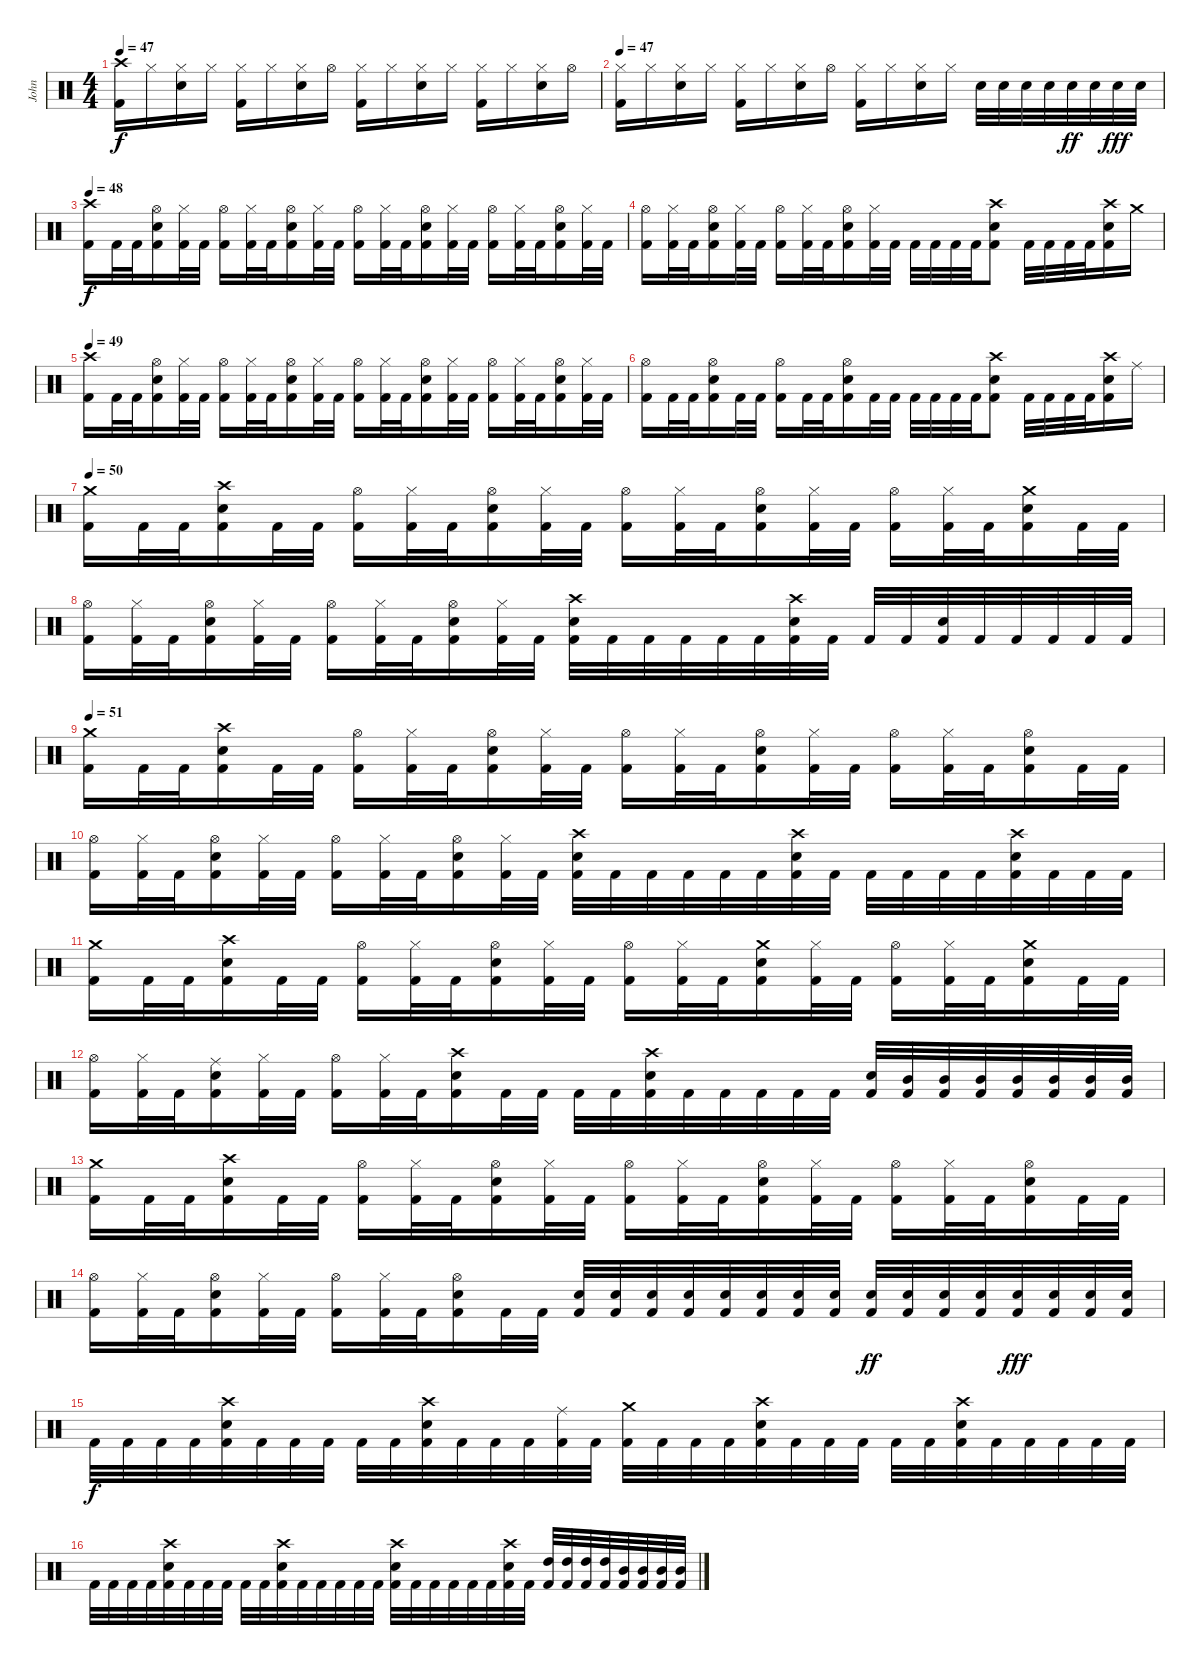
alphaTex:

\track ("John" "John") {instrument percussion}
\staff {score}
\articulation defaults
\ts (4 4)
\tempo 47
\clef neutral
\ks c
("Crash high (hit)" "Kick (hit) 2").16{dy f} "Hi-Hat (closed)".16 ("Hi-Hat (closed)" "Snare (hit) 2").16 "Hi-Hat (closed)".16 ("Hi-Hat (closed)" "Kick (hit) 2").16 "Hi-Hat (closed)".16 ("Hi-Hat (closed)" "Snare (hit) 2").16 "Hi-Hat (open)".16 ("Hi-Hat (closed)" "Kick (hit) 2").16 "Hi-Hat (closed)".16 ("Hi-Hat (closed)" "Snare (hit) 2").16 "Hi-Hat (closed)".16 ("Hi-Hat (closed)" "Kick (hit) 2").16 "Hi-Hat (closed)".16 ("Hi-Hat (closed)" "Snare (hit) 2").16 "Hi-Hat (open)".16 |
\tempo 47
("Hi-Hat (closed)" "Kick (hit) 2").16 "Hi-Hat (closed)".16 ("Hi-Hat (closed)" "Snare (hit) 2").16 "Hi-Hat (closed)".16 ("Hi-Hat (closed)" "Kick (hit) 2").16 "Hi-Hat (closed)".16 ("Hi-Hat (closed)" "Snare (hit) 2").16 "Hi-Hat (open)".16 ("Hi-Hat (closed)" "Kick (hit) 2").16 "Hi-Hat (closed)".16 ("Hi-Hat (closed)" "Snare (hit) 2").16 "Hi-Hat (closed)".16 "Snare (hit) 2".32 "Snare (hit) 2".32 "Snare (hit) 2".32 "Snare (hit) 2".32 "Snare (hit) 2".32{dy ff} "Snare (hit) 2".32 "Snare (hit) 2".32{dy fff} "Snare (hit) 2".32 |
\tempo 45
\tempo 48
("Crash high (hit)" "Kick (hit) 2").16{dy f} "Kick (hit) 2".32 "Kick (hit) 2".32 ("Hi-Hat (open)" "Snare (hit) 2" "Kick (hit) 2").16 ("Hi-Hat (closed)" "Kick (hit) 2").32 "Kick (hit) 2".32 ("Hi-Hat (open)" "Kick (hit) 2").16 ("Hi-Hat (closed)" "Kick (hit) 2").32 "Kick (hit) 2".32 ("Hi-Hat (open)" "Snare (hit) 2" "Kick (hit) 2").16 ("Hi-Hat (closed)" "Kick (hit) 2").32 "Kick (hit) 2".32 ("Hi-Hat (open)" "Kick (hit) 2").16 ("Hi-Hat (closed)" "Kick (hit) 2").32 "Kick (hit) 2".32 ("Hi-Hat (open)" "Snare (hit) 2" "Kick (hit) 2").16 ("Hi-Hat (closed)" "Kick (hit) 2").32 "Kick (hit) 2".32 ("Hi-Hat (open)" "Kick (hit) 2").16 ("Hi-Hat (closed)" "Kick (hit) 2").32 "Kick (hit) 2".32 ("Hi-Hat (open)" "Snare (hit) 2" "Kick (hit) 2").16 ("Hi-Hat (closed)" "Kick (hit) 2").32 "Kick (hit) 2".32 |
("Hi-Hat (open)" "Kick (hit) 2").16 ("Hi-Hat (closed)" "Kick (hit) 2").32 "Kick (hit) 2".32 ("Hi-Hat (open)" "Snare (hit) 2" "Kick (hit) 2").16 ("Hi-Hat (closed)" "Kick (hit) 2").32 "Kick (hit) 2".32 ("Hi-Hat (open)" "Kick (hit) 2").16 ("Hi-Hat (closed)" "Kick (hit) 2").32 "Kick (hit) 2".32 ("Hi-Hat (open)" "Snare (hit) 2" "Kick (hit) 2").16 ("Hi-Hat (closed)" "Kick (hit) 2").32 "Kick (hit) 2".32 "Kick (hit) 2".32 "Kick (hit) 2".32 "Kick (hit) 2".32 "Kick (hit) 2".32 ("Crash high (hit)" "Snare (hit) 2" "Kick (hit) 2").8 "Kick (hit) 2".32 "Kick (hit) 2".32 "Kick (hit) 2".32 "Kick (hit) 2".32 ("Crash high (hit)" "Snare (hit) 2" "Kick (hit) 2").16 "Crash medium (hit)".16 |
\tempo 49
("Crash high (hit)" "Kick (hit) 2").16 "Kick (hit) 2".32 "Kick (hit) 2".32 ("Hi-Hat (open)" "Snare (hit) 2" "Kick (hit) 2").16 ("Hi-Hat (closed)" "Kick (hit) 2").32 "Kick (hit) 2".32 ("Hi-Hat (open)" "Kick (hit) 2").16 ("Hi-Hat (closed)" "Kick (hit) 2").32 "Kick (hit) 2".32 ("Hi-Hat (open)" "Snare (hit) 2" "Kick (hit) 2").16 ("Hi-Hat (closed)" "Kick (hit) 2").32 "Kick (hit) 2".32 ("Hi-Hat (open)" "Kick (hit) 2").16 ("Hi-Hat (closed)" "Kick (hit) 2").32 "Kick (hit) 2".32 ("Hi-Hat (open)" "Snare (hit) 2" "Kick (hit) 2").16 ("Hi-Hat (closed)" "Kick (hit) 2").32 "Kick (hit) 2".32 ("Hi-Hat (open)" "Kick (hit) 2").16 ("Hi-Hat (closed)" "Kick (hit) 2").32 "Kick (hit) 2".32 ("Hi-Hat (open)" "Snare (hit) 2" "Kick (hit) 2").16 ("Hi-Hat (closed)" "Kick (hit) 2").32 "Kick (hit) 2".32 |
("Hi-Hat (open)" "Kick (hit) 2").16 "Kick (hit) 2".32 "Kick (hit) 2".32 ("Hi-Hat (open)" "Snare (hit) 2" "Kick (hit) 2").16 "Kick (hit) 2".32 "Kick (hit) 2".32 ("Hi-Hat (open)" "Kick (hit) 2").16 "Kick (hit) 2".32 "Kick (hit) 2".32 ("Hi-Hat (open)" "Snare (hit) 2" "Kick (hit) 2").16 "Kick (hit) 2".32 "Kick (hit) 2".32 "Kick (hit) 2".32 "Kick (hit) 2".32 "Kick (hit) 2".32 "Kick (hit) 2".32 ("Crash high (hit)" "Snare (hit) 2" "Kick (hit) 2").8 "Kick (hit) 2".32 "Kick (hit) 2".32 "Kick (hit) 2".32 "Kick (hit) 2".32 ("Crash high (hit)" "Snare (hit) 2" "Kick (hit) 2").16 "Ride (middle)".16 |
\tempo 50
("Crash medium (hit)" "Kick (hit) 2").16 "Kick (hit) 2".32 "Kick (hit) 2".32 ("Crash high (hit)" "Snare (hit) 2" "Kick (hit) 2").16 "Kick (hit) 2".32 "Kick (hit) 2".32 ("Hi-Hat (open)" "Kick (hit) 2").16 ("Hi-Hat (closed)" "Kick (hit) 2").32 "Kick (hit) 2".32 ("Hi-Hat (open)" "Snare (hit) 2" "Kick (hit) 2").16 ("Hi-Hat (closed)" "Kick (hit) 2").32 "Kick (hit) 2".32 ("Hi-Hat (open)" "Kick (hit) 2").16 ("Hi-Hat (closed)" "Kick (hit) 2").32 "Kick (hit) 2".32 ("Hi-Hat (open)" "Snare (hit) 2" "Kick (hit) 2").16 ("Hi-Hat (closed)" "Kick (hit) 2").32 "Kick (hit) 2".32 ("Hi-Hat (open)" "Kick (hit) 2").16 ("Hi-Hat (closed)" "Kick (hit) 2").32 "Kick (hit) 2".32 ("Crash medium (hit)" "Snare (hit) 2" "Kick (hit) 2").16 "Kick (hit) 2".32 "Kick (hit) 2".32 |
("Hi-Hat (open)" "Kick (hit) 2").16 ("Hi-Hat (closed)" "Kick (hit) 2").32 "Kick (hit) 2".32 ("Hi-Hat (open)" "Snare (hit) 2" "Kick (hit) 2").16 ("Hi-Hat (closed)" "Kick (hit) 2").32 "Kick (hit) 2".32 ("Hi-Hat (open)" "Kick (hit) 2").16 ("Hi-Hat (closed)" "Kick (hit) 2").32 "Kick (hit) 2".32 ("Hi-Hat (open)" "Snare (hit) 2" "Kick (hit) 2").16 ("Hi-Hat (closed)" "Kick (hit) 2").32 "Kick (hit) 2".32 ("Crash high (hit)" "Snare (hit) 2" "Kick (hit) 2").32 "Kick (hit) 2".32 "Kick (hit) 2".32 "Kick (hit) 2".32 "Kick (hit) 2".32 "Kick (hit) 2".32 ("Crash high (hit)" "Snare (hit) 2" "Kick (hit) 2").32 "Kick (hit) 2".32 "Kick (hit) 2".32 "Kick (hit) 2".32 ("Snare (hit) 2" "Kick (hit) 2").32 "Kick (hit) 2".32 "Kick (hit) 2".32 "Kick (hit) 2".32 "Kick (hit) 2".32 "Kick (hit) 2".32 |
\tempo 51
("Crash medium (hit)" "Kick (hit) 2").16 "Kick (hit) 2".32 "Kick (hit) 2".32 ("Crash high (hit)" "Snare (hit) 2" "Kick (hit) 2").16 "Kick (hit) 2".32 "Kick (hit) 2".32 ("Hi-Hat (open)" "Kick (hit) 2").16 ("Hi-Hat (closed)" "Kick (hit) 2").32 "Kick (hit) 2".32 ("Hi-Hat (open)" "Snare (hit) 2" "Kick (hit) 2").16 ("Hi-Hat (closed)" "Kick (hit) 2").32 "Kick (hit) 2".32 ("Hi-Hat (open)" "Kick (hit) 2").16 ("Hi-Hat (closed)" "Kick (hit) 2").32 "Kick (hit) 2".32 ("Hi-Hat (open)" "Snare (hit) 2" "Kick (hit) 2").16 ("Hi-Hat (closed)" "Kick (hit) 2").32 "Kick (hit) 2".32 ("Hi-Hat (open)" "Kick (hit) 2").16 ("Hi-Hat (closed)" "Kick (hit) 2").32 "Kick (hit) 2".32 ("Hi-Hat (open)" "Snare (hit) 2" "Kick (hit) 2").16 "Kick (hit) 2".32 "Kick (hit) 2".32 |
("Hi-Hat (open)" "Kick (hit) 2").16 ("Hi-Hat (closed)" "Kick (hit) 2").32 "Kick (hit) 2".32 ("Hi-Hat (open)" "Snare (hit) 2" "Kick (hit) 2").16 ("Hi-Hat (closed)" "Kick (hit) 2").32 "Kick (hit) 2".32 ("Hi-Hat (open)" "Kick (hit) 2").16 ("Hi-Hat (closed)" "Kick (hit) 2").32 "Kick (hit) 2".32 ("Hi-Hat (open)" "Snare (hit) 2" "Kick (hit) 2").16 ("Hi-Hat (closed)" "Kick (hit) 2").32 "Kick (hit) 2".32 ("Crash high (hit)" "Snare (hit) 2" "Kick (hit) 2").32 "Kick (hit) 2".32 "Kick (hit) 2".32 "Kick (hit) 2".32 "Kick (hit) 2".32 "Kick (hit) 2".32 ("Crash high (hit)" "Snare (hit) 2" "Kick (hit) 2").32 "Kick (hit) 2".32 "Kick (hit) 2".32 "Kick (hit) 2".32 "Kick (hit) 2".32 "Kick (hit) 2".32 ("Crash high (hit)" "Snare (hit) 2" "Kick (hit) 2").32 "Kick (hit) 2".32 "Kick (hit) 2".32 "Kick (hit) 2".32 |
("Crash medium (hit)" "Kick (hit) 2").16 "Kick (hit) 2".32 "Kick (hit) 2".32 ("Crash high (hit)" "Snare (hit) 2" "Kick (hit) 2").16 "Kick (hit) 2".32 "Kick (hit) 2".32 ("Hi-Hat (open)" "Kick (hit) 2").16 ("Hi-Hat (closed)" "Kick (hit) 2").32 "Kick (hit) 2".32 ("Hi-Hat (open)" "Snare (hit) 2" "Kick (hit) 2").16 ("Hi-Hat (closed)" "Kick (hit) 2").32 "Kick (hit) 2".32 ("Hi-Hat (open)" "Kick (hit) 2").16 ("Hi-Hat (closed)" "Kick (hit) 2").32 "Kick (hit) 2".32 ("Crash medium (hit)" "Snare (hit) 2" "Kick (hit) 2").16 ("Hi-Hat (closed)" "Kick (hit) 2").32 "Kick (hit) 2".32 ("Hi-Hat (open)" "Kick (hit) 2").16 ("Hi-Hat (closed)" "Kick (hit) 2").32 "Kick (hit) 2".32 ("Crash medium (hit)" "Snare (hit) 2" "Kick (hit) 2").16 "Kick (hit) 2".32 "Kick (hit) 2".32 |
("Hi-Hat (open)" "Kick (hit) 2").16 ("Hi-Hat (closed)" "Kick (hit) 2").32 "Kick (hit) 2".32 ("Ride (middle)" "Snare (hit) 2" "Kick (hit) 2").16 ("Hi-Hat (closed)" "Kick (hit) 2").32 "Kick (hit) 2".32 ("Hi-Hat (open)" "Kick (hit) 2").16 ("Hi-Hat (closed)" "Kick (hit) 2").32 "Kick (hit) 2".32 ("Crash high (hit)" "Snare (hit) 2" "Kick (hit) 2").16 "Kick (hit) 2".32 "Kick (hit) 2".32 "Kick (hit) 2".32 "Kick (hit) 2".32 ("Crash high (hit)" "Snare (hit) 2" "Kick (hit) 2").32 "Kick (hit) 2".32 "Kick (hit) 2".32 "Kick (hit) 2".32 "Kick (hit) 2".32 "Kick (hit) 2".32 ("Snare (hit) 2" "Kick (hit) 2").32 ("Mid Tom (hit)" "Kick (hit) 2").32 ("Mid Tom (hit)" "Kick (hit) 2").32 ("Mid Tom (hit)" "Kick (hit) 2").32 ("Mid Tom (hit)" "Kick (hit) 2").32 ("Mid Tom (hit)" "Kick (hit) 2").32 ("Mid Tom (hit)" "Kick (hit) 2").32 ("Mid Tom (hit)" "Kick (hit) 2").32 |
("Crash medium (hit)" "Kick (hit) 2").16 "Kick (hit) 2".32 "Kick (hit) 2".32 ("Crash high (hit)" "Snare (hit) 2" "Kick (hit) 2").16 "Kick (hit) 2".32 "Kick (hit) 2".32 ("Hi-Hat (open)" "Kick (hit) 2").16 ("Hi-Hat (closed)" "Kick (hit) 2").32 "Kick (hit) 2".32 ("Hi-Hat (open)" "Snare (hit) 2" "Kick (hit) 2").16 ("Hi-Hat (closed)" "Kick (hit) 2").32 "Kick (hit) 2".32 ("Hi-Hat (open)" "Kick (hit) 2").16 ("Hi-Hat (closed)" "Kick (hit) 2").32 "Kick (hit) 2".32 ("Hi-Hat (open)" "Snare (hit) 2" "Kick (hit) 2").16 ("Hi-Hat (closed)" "Kick (hit) 2").32 "Kick (hit) 2".32 ("Hi-Hat (open)" "Kick (hit) 2").16 ("Hi-Hat (closed)" "Kick (hit) 2").32 "Kick (hit) 2".32 ("Hi-Hat (open)" "Snare (hit) 2" "Kick (hit) 2").16 "Kick (hit) 2".32 "Kick (hit) 2".32 |
("Hi-Hat (open)" "Kick (hit) 2").16 ("Hi-Hat (closed)" "Kick (hit) 2").32 "Kick (hit) 2".32 ("Hi-Hat (open)" "Snare (hit) 2" "Kick (hit) 2").16 ("Hi-Hat (closed)" "Kick (hit) 2").32 "Kick (hit) 2".32 ("Hi-Hat (open)" "Kick (hit) 2").16 ("Hi-Hat (closed)" "Kick (hit) 2").32 "Kick (hit) 2".32 ("Hi-Hat (open)" "Snare (hit) 2" "Kick (hit) 2").16 "Kick (hit) 2".32 "Kick (hit) 2".32 ("Snare (hit) 2" "Kick (hit) 2").32 ("Snare (hit) 2" "Kick (hit) 2").32 ("Snare (hit) 2" "Kick (hit) 2").32 ("Snare (hit) 2" "Kick (hit) 2").32 ("Snare (hit) 2" "Kick (hit) 2").32 ("Snare (hit) 2" "Kick (hit) 2").32 ("Snare (hit) 2" "Kick (hit) 2").32 ("Snare (hit) 2" "Kick (hit) 2").32 ("Snare (hit) 2" "Kick (hit) 2").32{dy ff} ("Snare (hit) 2" "Kick (hit) 2").32 ("Snare (hit) 2" "Kick (hit) 2").32 ("Snare (hit) 2" "Kick (hit) 2").32 ("Snare (hit) 2" "Kick (hit) 2").32{dy fff} ("Snare (hit) 2" "Kick (hit) 2").32 ("Snare (hit) 2" "Kick (hit) 2").32 ("Snare (hit) 2" "Kick (hit) 2").32 |
"Kick (hit) 2".32{dy f} "Kick (hit) 2".32 "Kick (hit) 2".32 "Kick (hit) 2".32 ("Crash high (hit)" "Snare (hit) 2" "Kick (hit) 2").32 "Kick (hit) 2".32 "Kick (hit) 2".32 "Kick (hit) 2".32 "Kick (hit) 2".32 "Kick (hit) 2".32 ("Crash high (hit)" "Snare (hit) 2" "Kick (hit) 2").32 "Kick (hit) 2".32 "Kick (hit) 2".32 "Kick (hit) 2".32 ("Ride (middle)" "Kick (hit) 2").32 "Kick (hit) 2".32 ("Crash medium (hit)" "Kick (hit) 2").32 "Kick (hit) 2".32 "Kick (hit) 2".32 "Kick (hit) 2".32 ("Crash high (hit)" "Snare (hit) 2" "Kick (hit) 2").32 "Kick (hit) 2".32 "Kick (hit) 2".32 "Kick (hit) 2".32 "Kick (hit) 2".32 "Kick (hit) 2".32 ("Crash high (hit)" "Snare (hit) 2" "Kick (hit) 2").32 "Kick (hit) 2".32 "Kick (hit) 2".32 "Kick (hit) 2".32 "Kick (hit) 2".32 "Kick (hit) 2".32 |
"Kick (hit) 2".32 "Kick (hit) 2".32 "Kick (hit) 2".32 "Kick (hit) 2".32 ("Crash high (hit)" "Snare (hit) 2" "Kick (hit) 2").32 "Kick (hit) 2".32 "Kick (hit) 2".32 "Kick (hit) 2".32 "Kick (hit) 2".32 "Kick (hit) 2".32 ("Crash high (hit)" "Snare (hit) 2" "Kick (hit) 2").32 "Kick (hit) 2".32 "Kick (hit) 2".32 "Kick (hit) 2".32 "Kick (hit) 2".32 "Kick (hit) 2".32 ("Crash high (hit)" "Snare (hit) 2" "Kick (hit) 2").32 "Kick (hit) 2".32 "Kick (hit) 2".32 "Kick (hit) 2".32 "Kick (hit) 2".32 "Kick (hit) 2".32 ("Crash high (hit)" "Snare (hit) 2" "Kick (hit) 2").32 "Kick (hit) 2".32 ("High Tom (hit)" "Kick (hit) 2").32 ("High Tom (hit)" "Kick (hit) 2").32 ("High Tom (hit)" "Kick (hit) 2").32 ("High Tom (hit)" "Kick (hit) 2").32 ("Mid Tom (hit)" "Kick (hit) 2").32 ("Mid Tom (hit)" "Kick (hit) 2").32 ("Mid Tom (hit)" "Kick (hit) 2").32 ("Mid Tom (hit)" "Kick (hit) 2").32
